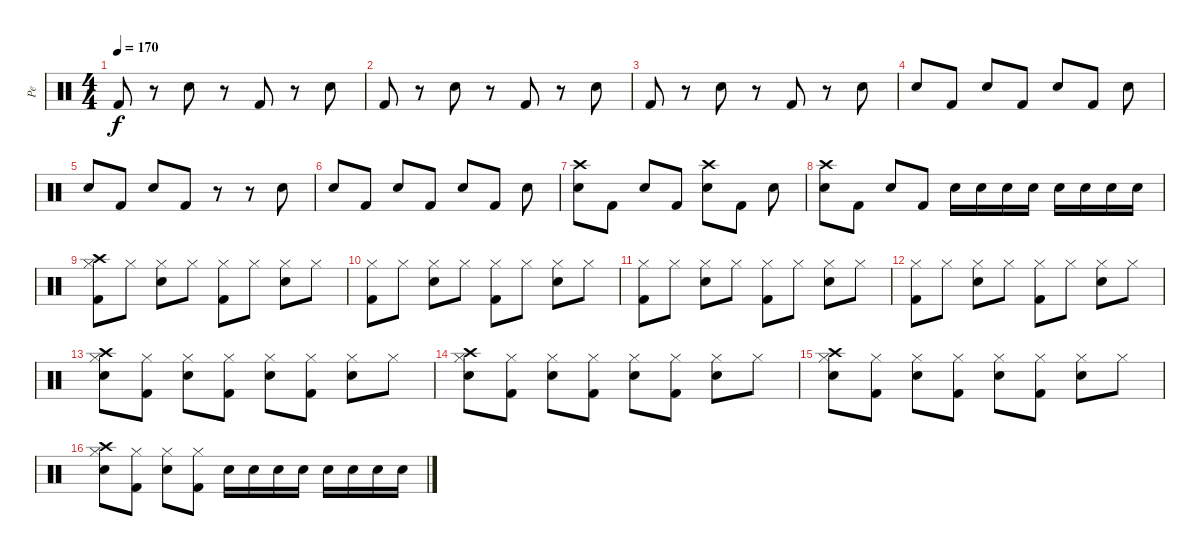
\track ("Pe" "Pe") {instrument percussion}
\staff {score}
\articulation defaults
\ts (4 4)
\tempo 170
\clef neutral
\ks c "Kick (hit) 2".8{dy f}
r.8 "Snare (hit) 2".8 r.8 "Kick (hit) 2".8 r.8 "Snare (hit) 2".8 |
"Kick (hit) 2".8 r.8 "Snare (hit) 2".8 r.8 "Kick (hit) 2".8 r.8 "Snare (hit) 2".8 |
"Kick (hit) 2".8 r.8 "Snare (hit) 2".8 r.8 "Kick (hit) 2".8 r.8 "Snare (hit) 2".8 |
"Snare (hit) 2".8 "Kick (hit) 2".8 "Snare (hit) 2".8 "Kick (hit) 2".8 "Snare (hit) 2".8 "Kick (hit) 2".8 "Snare (hit) 2".8 |
"Snare (hit) 2".8 "Kick (hit) 2".8 "Snare (hit) 2".8 "Kick (hit) 2".8 r.8 r.8 "Snare (hit) 2".8 |
"Snare (hit) 2".8 "Kick (hit) 2".8 "Snare (hit) 2".8 "Kick (hit) 2".8 "Snare (hit) 2".8 "Kick (hit) 2".8 "Snare (hit) 2".8 |
("Crash high (hit)" "Snare (hit) 2").8 "Kick (hit) 2".8 "Snare (hit) 2".8 "Kick (hit) 2".8 ("Crash high (hit)" "Snare (hit) 2").8 "Kick (hit) 2".8 "Snare (hit) 2".8 |
("Crash high (hit)" "Snare (hit) 2").8 "Kick (hit) 2".8 "Snare (hit) 2".8 "Kick (hit) 2".8 "Snare (hit) 2".16 "Snare (hit) 2".16 "Snare (hit) 2".16 "Snare (hit) 2".16 "Snare (hit) 2".16 "Snare (hit) 2".16 "Snare (hit) 2".16 "Snare (hit) 2".16 |
("Crash high (hit)" "Hi-Hat (closed)" "Kick (hit) 2").8 "Hi-Hat (closed)".8 ("Hi-Hat (closed)" "Snare (hit) 2").8 "Hi-Hat (closed)".8 ("Hi-Hat (closed)" "Kick (hit) 2").8 "Hi-Hat (closed)".8 ("Hi-Hat (closed)" "Snare (hit) 2").8 "Hi-Hat (closed)".8 |
("Hi-Hat (closed)" "Kick (hit) 2").8 "Hi-Hat (closed)".8 ("Hi-Hat (closed)" "Snare (hit) 2").8 "Hi-Hat (closed)".8 ("Hi-Hat (closed)" "Kick (hit) 2").8 "Hi-Hat (closed)".8 ("Hi-Hat (closed)" "Snare (hit) 2").8 "Hi-Hat (closed)".8 |
("Hi-Hat (closed)" "Kick (hit) 2").8 "Hi-Hat (closed)".8 ("Hi-Hat (closed)" "Snare (hit) 2").8 "Hi-Hat (closed)".8 ("Hi-Hat (closed)" "Kick (hit) 2").8 "Hi-Hat (closed)".8 ("Hi-Hat (closed)" "Snare (hit) 2").8 "Hi-Hat (closed)".8 |
("Hi-Hat (closed)" "Kick (hit) 2").8 "Hi-Hat (closed)".8 ("Hi-Hat (closed)" "Snare (hit) 2").8 "Hi-Hat (closed)".8 ("Hi-Hat (closed)" "Kick (hit) 2").8 "Hi-Hat (closed)".8 ("Hi-Hat (closed)" "Snare (hit) 2").8 "Hi-Hat (closed)".8 |
("Crash high (hit)" "Hi-Hat (closed)" "Snare (hit) 2").8 ("Hi-Hat (closed)" "Kick (hit) 2").8 ("Hi-Hat (closed)" "Snare (hit) 2").8 ("Hi-Hat (closed)" "Kick (hit) 2").8 ("Hi-Hat (closed)" "Snare (hit) 2").8 ("Hi-Hat (closed)" "Kick (hit) 2").8 ("Hi-Hat (closed)" "Snare (hit) 2").8 "Hi-Hat (closed)".8 |
("Crash high (hit)" "Hi-Hat (closed)" "Snare (hit) 2").8 ("Hi-Hat (closed)" "Kick (hit) 2").8 ("Hi-Hat (closed)" "Snare (hit) 2").8 ("Hi-Hat (closed)" "Kick (hit) 2").8 ("Hi-Hat (closed)" "Snare (hit) 2").8 ("Hi-Hat (closed)" "Kick (hit) 2").8 ("Hi-Hat (closed)" "Snare (hit) 2").8 "Hi-Hat (closed)".8 |
("Crash high (hit)" "Hi-Hat (closed)" "Snare (hit) 2").8 ("Hi-Hat (closed)" "Kick (hit) 2").8 ("Hi-Hat (closed)" "Snare (hit) 2").8 ("Hi-Hat (closed)" "Kick (hit) 2").8 ("Hi-Hat (closed)" "Snare (hit) 2").8 ("Hi-Hat (closed)" "Kick (hit) 2").8 ("Hi-Hat (closed)" "Snare (hit) 2").8 "Hi-Hat (closed)".8 |
("Crash high (hit)" "Hi-Hat (closed)" "Snare (hit) 2").8 ("Hi-Hat (closed)" "Kick (hit) 2").8 ("Hi-Hat (closed)" "Snare (hit) 2").8 ("Hi-Hat (closed)" "Kick (hit) 2").8 "Snare (hit) 2".16 "Snare (hit) 2".16 "Snare (hit) 2".16 "Snare (hit) 2".16 "Snare (hit) 2".16 "Snare (hit) 2".16 "Snare (hit) 2".16 "Snare (hit) 2".16
